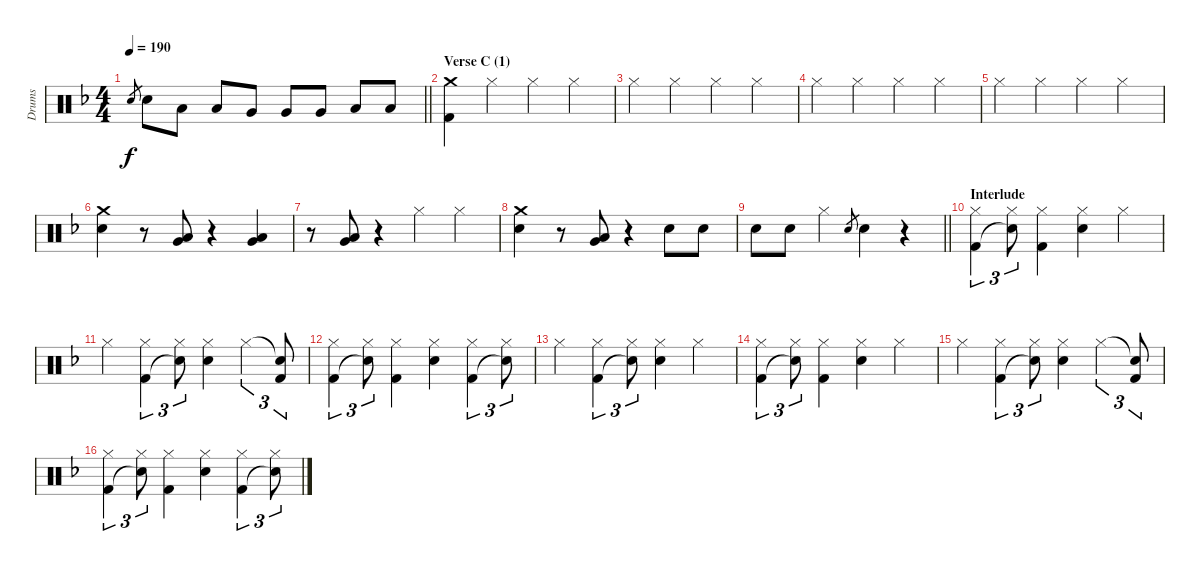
\track ("Drums" "Drums") {instrument percussion}
\staff {score}
\articulation defaults
\ts (4 4)
\tempo 190
\clef neutral
\barLineRight lightlight
\ks dminor "Electric Snare (hit)".8{gr dy f} "Electric Snare (hit)".8 "Low Tom (hit)".8 "Low Tom (hit)".8 "Very Low Tom (hit)".8 "Very Low Tom (hit)".8 "Very Low Tom (hit)".8 "Low Floor Tom (hit)".8 "Low Floor Tom (hit)".8
|
\section ("" "Verse C (1)")
("Crash medium (hit)" "Kick (hit) 2").4 "Hi-Hat (closed)".4 "Hi-Hat (closed)".4 "Hi-Hat (closed)".4 |
"Hi-Hat (closed)".4 "Hi-Hat (closed)".4 "Hi-Hat (closed)".4 "Hi-Hat (closed)".4 |
"Hi-Hat (closed)".4 "Hi-Hat (closed)".4 "Hi-Hat (closed)".4 "Hi-Hat (closed)".4 |
"Hi-Hat (closed)".4 "Hi-Hat (closed)".4 "Hi-Hat (closed)".4 "Hi-Hat (closed)".4 |
("Crash medium (hit)" "Electric Snare (hit)").4 r.8 ("Very Low Tom (hit)" "Low Floor Tom (hit)").8 r.4 ("Very Low Tom (hit)" "Low Floor Tom (hit)").4 |
r.8 ("Very Low Tom (hit)" "Low Floor Tom (hit)").8 r.4 "Hi-Hat (closed)".4 "Hi-Hat (closed)".4 |
("Crash medium (hit)" "Electric Snare (hit)").4 r.8 ("Very Low Tom (hit)" "Low Floor Tom (hit)").8 r.4 "Electric Snare (hit)".8 "Electric Snare (hit)".8 |
\barLineRight lightlight "Electric Snare (hit)".8 "Electric Snare (hit)".8 "Hi-Hat (closed)".4 "Electric Snare (hit)".8{gr} "Electric Snare (hit)".4
r.4 |
\section ("" "Interlude")
("Hi-Hat (closed)" "Kick (hit) 2").4{tu (3 2)} ("Hi-Hat (closed)" "Snare (hit)"{t}).8{tu (3 2)} ("Hi-Hat (closed)" "Kick (hit) 2").4 ("Hi-Hat (closed)" "Electric Snare (hit)").4 "Hi-Hat (closed)".4 |
"Hi-Hat (closed)".4 ("Hi-Hat (closed)" "Kick (hit) 2").4{tu (3 2)} ("Hi-Hat (closed)" "Snare (hit)"{t}).8{tu (3 2)} ("Hi-Hat (closed)" "Electric Snare (hit)").4 "Hi-Hat (closed)".4{tu (3 2)} ("Snare (hit)"{t} "Kick (hit) 2").8{tu (3 2)} |
("Hi-Hat (closed)" "Kick (hit) 2").4{tu (3 2)} ("Hi-Hat (closed)" "Snare (hit)"{t}).8{tu (3 2)} ("Hi-Hat (closed)" "Kick (hit) 2").4 ("Hi-Hat (closed)" "Electric Snare (hit)").4 ("Hi-Hat (closed)" "Kick (hit) 2").4{tu (3 2)} ("Hi-Hat (closed)" "Snare (hit)"{t}).8{tu (3 2)} |
"Hi-Hat (closed)".4 ("Hi-Hat (closed)" "Kick (hit) 2").4{tu (3 2)} ("Hi-Hat (closed)" "Snare (hit)"{t}).8{tu (3 2)} ("Hi-Hat (closed)" "Electric Snare (hit)").4 "Hi-Hat (closed)".4 |
("Hi-Hat (closed)" "Kick (hit) 2").4{tu (3 2)} ("Hi-Hat (closed)" "Snare (hit)"{t}).8{tu (3 2)} ("Hi-Hat (closed)" "Kick (hit) 2").4 ("Hi-Hat (closed)" "Electric Snare (hit)").4 "Hi-Hat (closed)".4 |
"Hi-Hat (closed)".4 ("Hi-Hat (closed)" "Kick (hit) 2").4{tu (3 2)} ("Hi-Hat (closed)" "Snare (hit)"{t}).8{tu (3 2)} ("Hi-Hat (closed)" "Electric Snare (hit)").4 "Hi-Hat (closed)".4{tu (3 2)} ("Snare (hit)"{t} "Kick (hit) 2").8{tu (3 2)} |
("Hi-Hat (closed)" "Kick (hit) 2").4{tu (3 2)} ("Hi-Hat (closed)" "Snare (hit)"{t}).8{tu (3 2)} ("Hi-Hat (closed)" "Kick (hit) 2").4 ("Hi-Hat (closed)" "Electric Snare (hit)").4 ("Hi-Hat (closed)" "Kick (hit) 2").4{tu (3 2)} ("Hi-Hat (closed)" "Snare (hit)"{t}).8{tu (3 2)}
